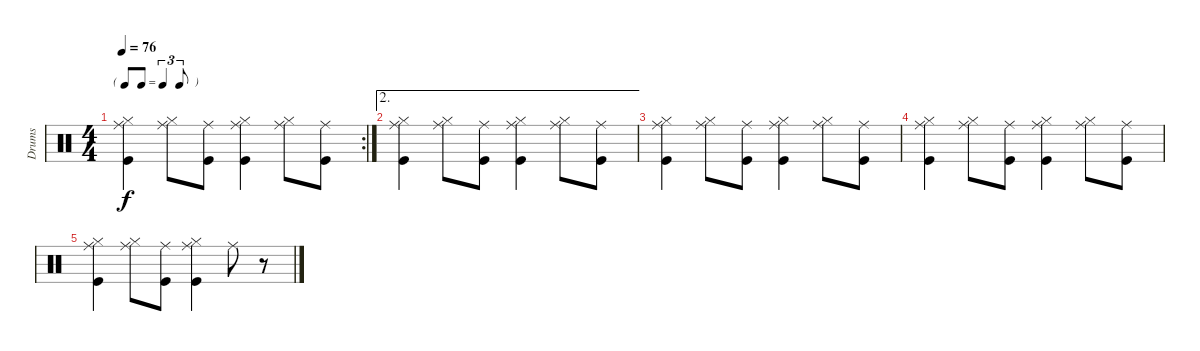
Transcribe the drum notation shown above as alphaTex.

\track ("Drums" "Drums") {instrument percussion}
\staff {score}
\articulation defaults
\rc 2
\ts (4 4)
\tf triplet8th
\tempo 76
\clef neutral
\ks c
("Kick (hit)" "Hi-Hat (closed)" "Ride (middle)").4{dy f} ("Hi-Hat (closed)" "Ride (middle)").8 ("Kick (hit)" "Ride (middle)").8 ("Hi-Hat (closed)" "Ride (middle)" "Kick (hit)").4 ("Hi-Hat (closed)" "Ride (middle)").8 ("Kick (hit)" "Ride (middle)").8 |
\ae 2
("Kick (hit)" "Hi-Hat (closed)" "Ride (middle)").4 ("Hi-Hat (closed)" "Ride (middle)").8 ("Kick (hit)" "Ride (middle)").8 ("Hi-Hat (closed)" "Ride (middle)" "Kick (hit)").4 ("Hi-Hat (closed)" "Ride (middle)").8 ("Kick (hit)" "Ride (middle)").8 |
("Kick (hit)" "Hi-Hat (closed)" "Ride (middle)").4 ("Hi-Hat (closed)" "Ride (middle)").8 ("Kick (hit)" "Ride (middle)").8 ("Hi-Hat (closed)" "Ride (middle)" "Kick (hit)").4 ("Hi-Hat (closed)" "Ride (middle)").8 ("Kick (hit)" "Ride (middle)").8 |
("Kick (hit)" "Hi-Hat (closed)" "Ride (middle)").4 ("Hi-Hat (closed)" "Ride (middle)").8 ("Kick (hit)" "Ride (middle)").8 ("Hi-Hat (closed)" "Ride (middle)" "Kick (hit)").4 ("Hi-Hat (closed)" "Ride (middle)").8 ("Kick (hit)" "Ride (middle)").8 |
("Kick (hit)" "Hi-Hat (closed)" "Ride (middle)").4 ("Hi-Hat (closed)" "Ride (middle)").8 ("Kick (hit)" "Ride (middle)").8 ("Hi-Hat (closed)" "Ride (middle)" "Kick (hit)").4 "Ride (middle)".8 r.8
